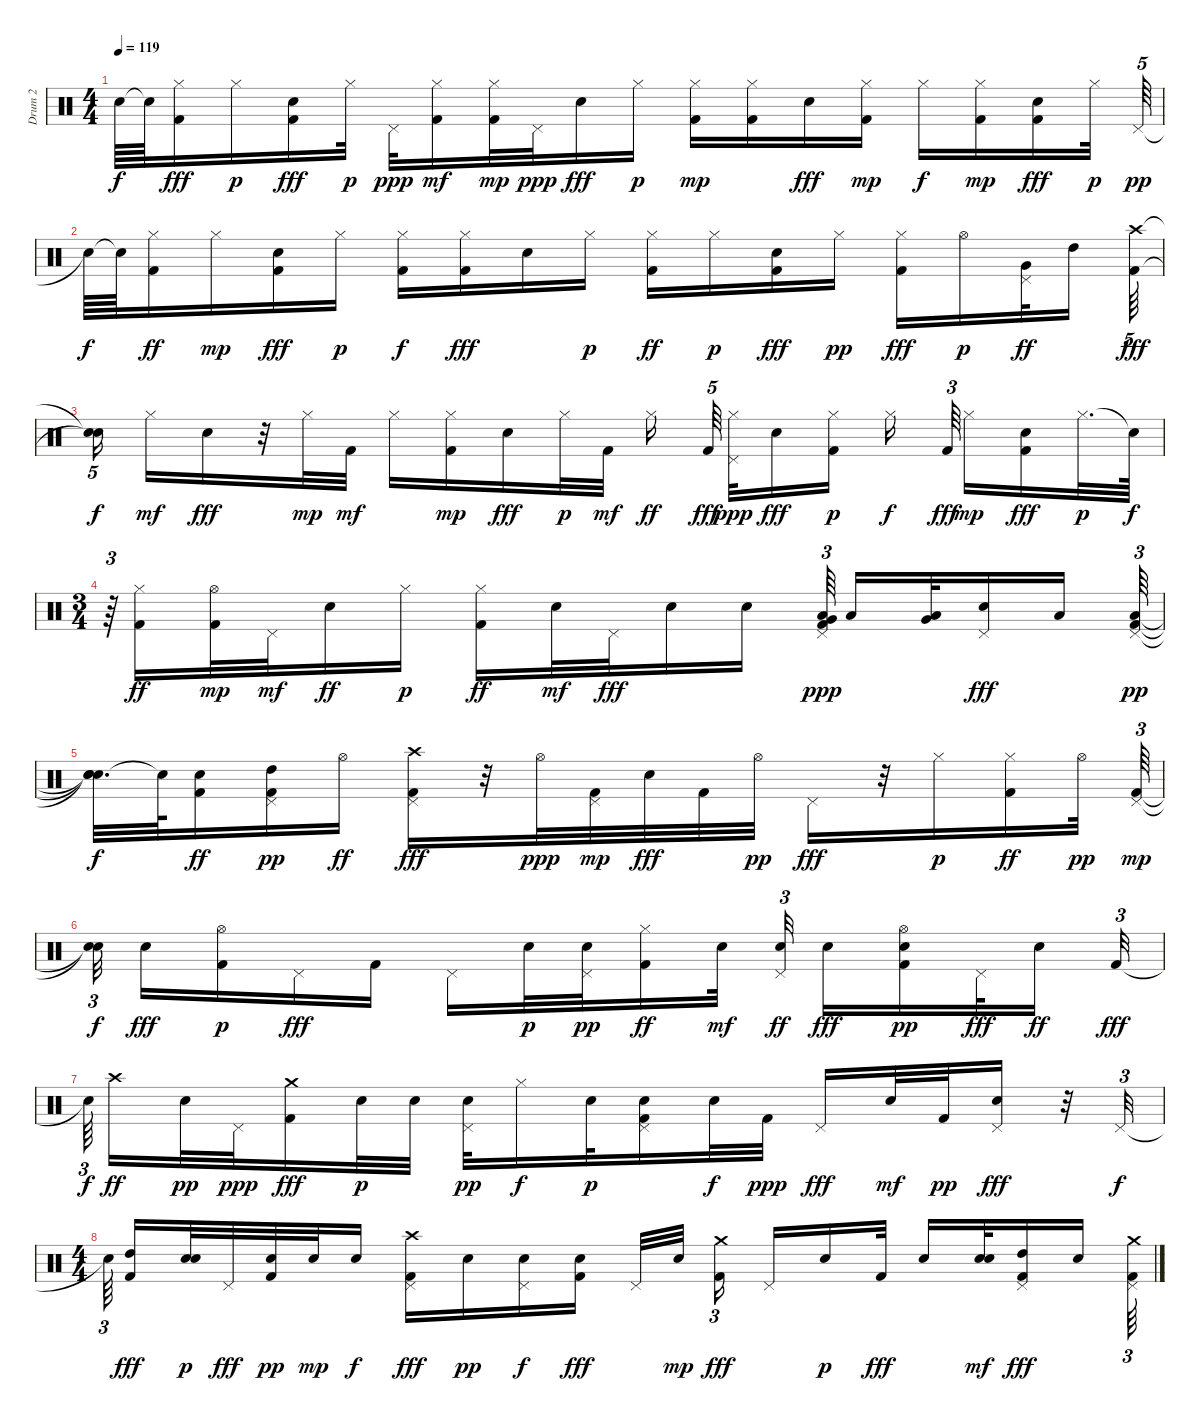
\track ("Drum 2                          " "Drum 2    ") {instrument percussion}
\staff {score}
\articulation defaults
\ts (4 4)
\tempo 119
\clef neutral
\ks c "Snare (hit)"{t}.64{dy f} "Snare (hit)"{t}.64
("Kick (hit) 2" "Hi-Hat (closed)").16{dy fff} "Hi-Hat (closed)".16{dy p} ("Kick (hit) 2" "Snare (hit) 2").16{dy fff} "Hi-Hat (closed)".32{dy p} "Pedal Hi-Hat (hit)".32{dy ppp} ("Kick (hit) 2" "Hi-Hat (closed)").16{dy mf} ("Kick (hit) 2" "Hi-Hat (closed)").32{dy mp} "Pedal Hi-Hat (hit)".32{dy ppp} "Snare (hit) 2".16{dy fff} "Hi-Hat (closed)".16{dy p} ("Kick (hit) 2" "Hi-Hat (closed)").16{dy mp} ("Kick (hit) 2" "Hi-Hat (closed)").16 "Snare (hit) 2".16{dy fff} ("Kick (hit) 2" "Hi-Hat (closed)").16{dy mp} "Hi-Hat (closed)".16{dy f} ("Kick (hit) 2" "Hi-Hat (closed)").16{dy mp} ("Kick (hit) 2" "Snare (hit) 2").16{dy fff} "Hi-Hat (closed)".32{dy p} "Pedal Hi-Hat (hit)".64{tu (5 4) dy pp} |
"Snare (hit)"{t}.64{dy f} "Snare (hit)"{t}.64 ("Kick (hit) 2" "Hi-Hat (closed)").16{dy ff} "Hi-Hat (closed)".16{dy mp} ("Kick (hit) 2" "Snare (hit) 2").16{dy fff} "Hi-Hat (closed)".16{dy p} ("Kick (hit) 2" "Hi-Hat (closed)").16{dy f} ("Hi-Hat (closed)" "Kick (hit) 2").16{dy fff} "Snare (hit) 2".16 "Hi-Hat (closed)".16{dy p} ("Kick (hit) 2" "Hi-Hat (closed)").16{dy ff} "Hi-Hat (closed)".16{dy p} ("Kick (hit) 2" "Snare (hit) 2").16{dy fff} "Hi-Hat (closed)".16{dy pp} ("Kick (hit) 2" "Hi-Hat (closed)").16{dy fff} "Hi-Hat (open)".16{dy p} ("Pedal Hi-Hat (hit)" "Very Low Tom (hit)").32{dy ff} "High Tom (hit)".16 ("Kick (hit) 2" "Crash high (hit)").64{tu (5 4) dy fff} |
("Snare (hit)"{t} "Snare (hit)"{t}).16{tu (5 4) dy f beam splitsecondary} "Hi-Hat (closed)".16{dy mf} "Snare (hit) 2".16{dy fff} r.32 "Hi-Hat (closed)".32{dy mp} "Kick (hit) 2".32{dy mf} "Hi-Hat (closed)".16 ("Kick (hit) 2" "Hi-Hat (closed)").16{dy mp} "Snare (hit) 2".16{dy fff} "Hi-Hat (closed)".32{dy p} "Kick (hit) 2".32{dy mf} "Hi-Hat (closed)".16{dy ff beam splitsecondary} "Kick (hit) 2".64{tu (5 4) dy fff beam splitsecondary} ("Hi-Hat (closed)" "Pedal Hi-Hat (hit)").32{dy ppp} "Snare (hit) 2".16{dy fff} ("Kick (hit) 2" "Hi-Hat (closed)").16{dy p} "Hi-Hat (closed)".16{dy f beam splitsecondary} "Kick (hit) 2".64{tu (3 2) dy fff beam splitsecondary} "Hi-Hat (closed)".16{dy mp} ("Kick (hit) 2" "Snare (hit) 2").16{dy fff} "Hi-Hat (closed)".32{d dy p} "Snare (hit)"{t}.64{dy f} |
\ts (3 4)
r.64{tu (3 2)} ("Kick (hit) 2" "Hi-Hat (closed)").16{dy ff} ("Kick (hit) 2" "Hi-Hat (open)").32{dy mp} "Pedal Hi-Hat (hit)".32{dy mf} "Electric Snare (hit)".16{dy ff} "Hi-Hat (closed)".16{dy p} ("Kick (hit) 2" "Hi-Hat (closed)").16{dy ff} "Electric Snare (hit)".32{dy mf} "Pedal Hi-Hat (hit)".32{dy fff} "Snare (hit) 2".16 "Electric Snare (hit)".16 ("Pedal Hi-Hat (hit)" "Very Low Tom (hit)" "Kick (hit) 2" "Low Floor Tom (hit)").64{tu (3 2) dy ppp beam splitsecondary} "Low Floor Tom (hit)".16 ("Very Low Tom (hit)" "Low Floor Tom (hit)").32 ("Pedal Hi-Hat (hit)" "Electric Snare (hit)").16{dy fff} "Low Tom (hit)".16{beam splitsecondary} ("Pedal Hi-Hat (hit)" "Low Tom (hit)" "Kick (hit) 2").64{tu (3 2) dy pp} |
("Snare (hit)"{t} "Snare (hit)"{t} "Snare (hit)"{t}).32{d dy f} "Snare (hit)"{t}.64 ("Kick (hit) 2" "Electric Snare (hit)").16{dy ff} ("Pedal Hi-Hat (hit)" "High Tom (hit)" "Kick (hit) 2").16{dy pp} "Hi-Hat (open)".16{dy ff} ("Pedal Hi-Hat (hit)" "Kick (hit) 2" "Crash high (hit)").16{dy fff} r.32 "Hi-Hat (open)".32{dy ppp} ("Pedal Hi-Hat (hit)" "Kick (hit) 2").32{dy mp} "Snare (hit) 2".32{dy fff} "Kick (hit) 2".32 "Hi-Hat (open)".32{dy pp} "Pedal Hi-Hat (hit)".16{dy fff} r.32 "Hi-Hat (closed)".16{dy p} ("Kick (hit) 2" "Hi-Hat (closed)").16{dy ff} "Hi-Hat (open)".32{dy pp} ("Pedal Hi-Hat (hit)" "Kick (hit) 2").64{tu (3 2) dy mp} |
("Snare (hit)"{t} "Snare (hit)"{t}).32{tu (3 2) dy f beam splitsecondary} "Snare (hit) 2".16{dy fff} ("Kick (hit) 2" "Hi-Hat (open)").16{dy p} "Pedal Hi-Hat (hit)".16{dy fff} "Kick (hit) 2".16 "Pedal Hi-Hat (hit)".16 "Snare (hit) 2".32{dy p} ("Pedal Hi-Hat (hit)" "Snare (hit) 2").32{dy pp} ("Kick (hit) 2" "Hi-Hat (closed)").16{dy ff} "Snare (hit) 2".32{dy mf} ("Snare (hit) 2" "Pedal Hi-Hat (hit)").32{tu (3 2) dy ff} "Snare (hit) 2".16{dy fff} ("Snare (hit) 2" "Kick (hit) 2" "Hi-Hat (open)").16{dy pp} "Pedal Hi-Hat (hit)".32{dy fff} "Electric Snare (hit)".16{dy ff beam splitsecondary} "Kick (hit) 2".32{tu (3 2) dy fff} |
"Snare (hit)"{t}.64{tu (3 2) dy f beam splitsecondary} "Crash high (hit)".16{dy ff} "Snare (hit) 2".32{dy pp} "Pedal Hi-Hat (hit)".32{dy ppp} ("Crash medium (hit)" "Kick (hit) 2").16{dy fff} "Snare (hit) 2".32{dy p} "Snare (hit) 2".32 ("Pedal Hi-Hat (hit)" "Snare (hit) 2").32{dy pp} "Hi-Hat (closed)".16{dy f} "Snare (hit) 2".32{dy p} ("Pedal Hi-Hat (hit)" "Kick (hit) 2" "Snare (hit) 2").16 "Electric Snare (hit)".32{dy f} "Kick (hit) 2".32{dy ppp} "Pedal Hi-Hat (hit)".16{dy fff} "Electric Snare (hit)".32{dy mf} "Kick (hit) 2".32{dy pp} ("Pedal Hi-Hat (hit)" "Snare (hit) 2").16{dy fff} r.32 "Pedal Hi-Hat (hit)".32{tu (3 2) dy f} |
\ts (4 4)
"Snare (hit)"{t}.64{tu (3 2) beam splitsecondary} ("High Tom (hit)" "Kick (hit) 2").16{dy fff} ("Electric Snare (hit)" "Electric Snare (hit)").32{dy p} "Pedal Hi-Hat (hit)".32{dy fff} ("Snare (hit) 2" "Kick (hit) 2").32{dy pp} "Snare (hit) 2".32{dy mp} "Electric Snare (hit)".16{dy f} ("Pedal Hi-Hat (hit)" "Crash high (hit)" "Kick (hit) 2").16{dy fff} "Snare (hit) 2".16{dy pp} ("Pedal Hi-Hat (hit)" "Snare (hit) 2").16{dy f} ("Kick (hit) 2" "Electric Snare (hit)").16{dy fff} "Pedal Hi-Hat (hit)".32 "Snare (hit) 2".32{dy mp beam splitsecondary} ("Kick (hit) 2" "Crash medium (hit)").16{tu (3 2) dy fff beam splitsecondary} "Pedal Hi-Hat (hit)".16 "Snare (hit) 2".16{dy p} "Kick (hit) 2".32{dy fff} "Snare (hit) 2".16 ("Snare (hit) 2" "Snare (hit) 2").32{dy mf} ("Pedal Hi-Hat (hit)" "Kick (hit) 2" "High Tom (hit)").16{dy fff} "Snare (hit) 2".16{beam splitsecondary} ("Pedal Hi-Hat (hit)" "Kick (hit) 2" "Crash medium (hit)").64{tu (3 2)}
